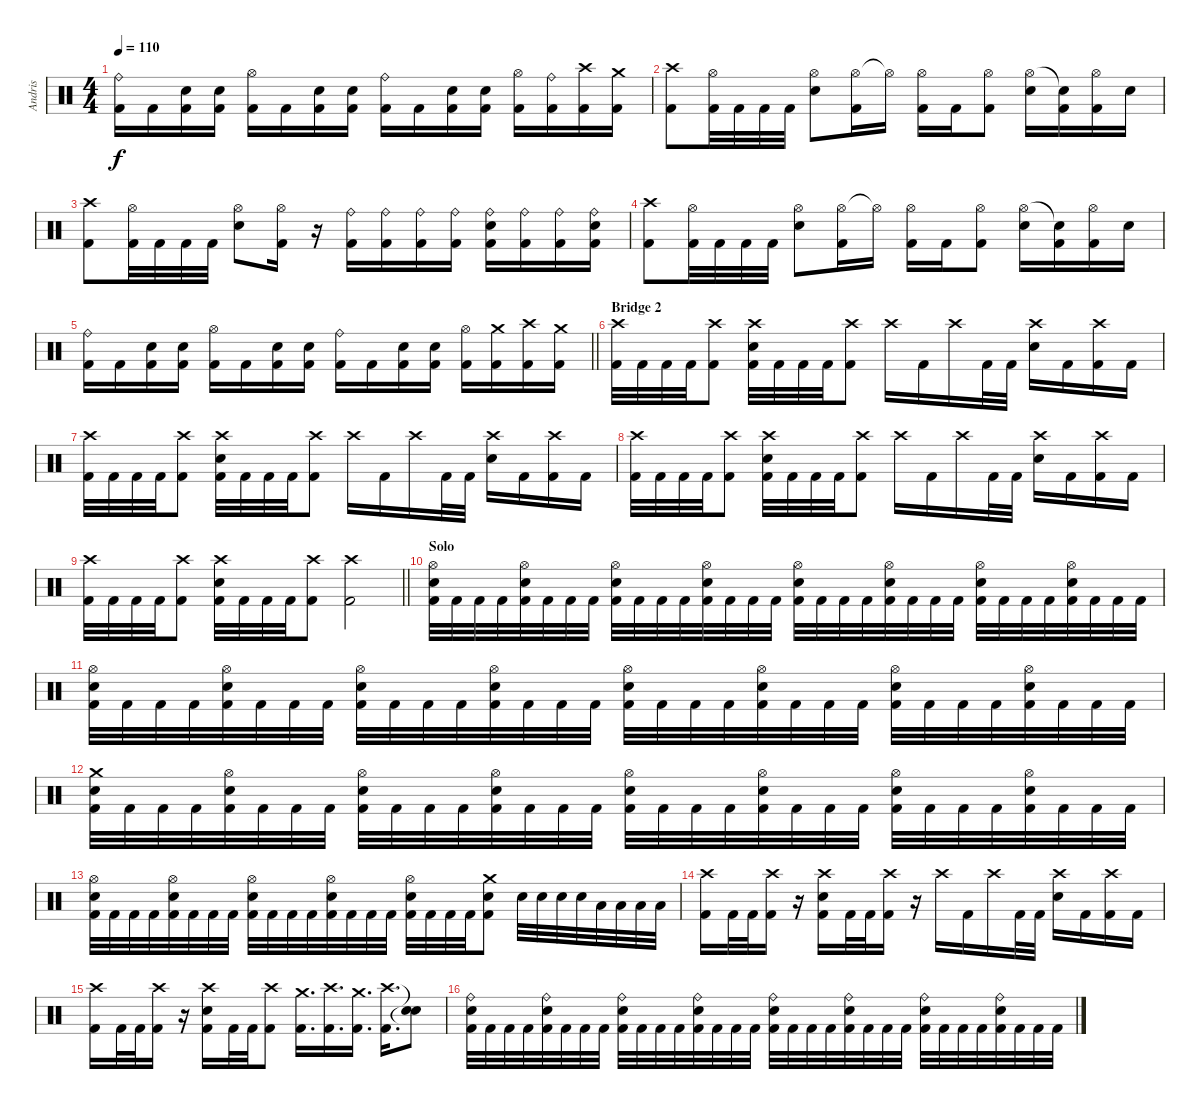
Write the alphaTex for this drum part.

\track ("Andris" "Andris") {instrument percussion}
\staff {score}
\articulation defaults
\ts (4 4)
\tempo 110
\clef neutral
\ks c
("Ride (bell)" "Kick (hit) 2").16{dy f} "Kick (hit) 2".16 ("Electric Snare (hit)" "Kick (hit) 2").16 ("Electric Snare (hit)" "Kick (hit) 2").16 ("Hi-Hat (open)" "Kick (hit) 2").16 "Kick (hit) 2".16 ("Electric Snare (hit)" "Kick (hit) 2").16 ("Electric Snare (hit)" "Kick (hit) 2").16 ("Ride (bell)" "Kick (hit) 2").16 "Kick (hit) 2".16 ("Electric Snare (hit)" "Kick (hit) 2").16 ("Electric Snare (hit)" "Kick (hit) 2").16 ("Hi-Hat (open)" "Kick (hit) 2").16 ("Ride (bell)" "Kick (hit) 2").16 ("Crash high (hit)" "Kick (hit) 2").16 ("Crash medium (hit)" "Kick (hit) 2").16 |
("Crash high (hit)" "Kick (hit) 2").8 ("Hi-Hat (open)" "Kick (hit) 2").32 "Kick (hit) 2".32 "Kick (hit) 2".32 "Kick (hit) 2".32 ("Hi-Hat (open)" "Electric Snare (hit)").8 ("Hi-Hat (open)" "Kick (hit) 2").16 "Hi-Hat (open)"{t}.16 ("Hi-Hat (open)" "Kick (hit) 2").16 "Kick (hit) 2".16 ("Hi-Hat (open)" "Kick (hit) 2").8 ("Hi-Hat (open)" "Electric Snare (hit)").16 ("Snare (hit)"{t} "Kick (hit) 2").16 ("Hi-Hat (open)" "Kick (hit) 2").16 "Electric Snare (hit)".16 |
("Crash high (hit)" "Kick (hit) 2").8 ("Hi-Hat (open)" "Kick (hit) 2").32 "Kick (hit) 2".32 "Kick (hit) 2".32 "Kick (hit) 2".32 ("Hi-Hat (open)" "Electric Snare (hit)").8 ("Hi-Hat (open)" "Kick (hit) 2").16 r.16 ("Ride (bell)" "Kick (hit) 2").16 ("Ride (bell)" "Kick (hit) 2").16 ("Ride (bell)" "Kick (hit) 2").16 ("Ride (bell)" "Kick (hit) 2").16 ("Ride (bell)" "Electric Snare (hit)" "Kick (hit) 2").16 ("Ride (bell)" "Kick (hit) 2").16 ("Ride (bell)" "Kick (hit) 2").16 ("Ride (bell)" "Electric Snare (hit)" "Kick (hit) 2").16 |
("Crash high (hit)" "Kick (hit) 2").8 ("Hi-Hat (open)" "Kick (hit) 2").32 "Kick (hit) 2".32 "Kick (hit) 2".32 "Kick (hit) 2".32 ("Hi-Hat (open)" "Electric Snare (hit)").8 ("Hi-Hat (open)" "Kick (hit) 2").16 "Hi-Hat (open)"{t}.16 ("Hi-Hat (open)" "Kick (hit) 2").16 "Kick (hit) 2".16 ("Hi-Hat (open)" "Kick (hit) 2").8 ("Hi-Hat (open)" "Electric Snare (hit)").16 ("Snare (hit)"{t} "Kick (hit) 2").16 ("Hi-Hat (open)" "Kick (hit) 2").16 "Electric Snare (hit)".16 |
\barLineRight lightlight
("Ride (bell)" "Kick (hit) 2").16 "Kick (hit) 2".16 ("Electric Snare (hit)" "Kick (hit) 2").16 ("Electric Snare (hit)" "Kick (hit) 2").16 ("Hi-Hat (open)" "Kick (hit) 2").16 "Kick (hit) 2".16 ("Electric Snare (hit)" "Kick (hit) 2").16 ("Electric Snare (hit)" "Kick (hit) 2").16 ("Ride (bell)" "Kick (hit) 2").16 "Kick (hit) 2".16 ("Electric Snare (hit)" "Kick (hit) 2").16 ("Electric Snare (hit)" "Kick (hit) 2").16 ("Hi-Hat (open)" "Kick (hit) 2").16 ("Crash medium (hit)" "Kick (hit) 2").16 ("Crash high (hit)" "Kick (hit) 2").16 ("Crash medium (hit)" "Kick (hit) 2").16 |
\section ("" "Bridge 2")
("Crash high (hit)" "Kick (hit) 2").32 "Kick (hit) 2".32 "Kick (hit) 2".32 "Kick (hit) 2".32 ("Crash high (hit)" "Kick (hit) 2").8 ("Crash high (hit)" "Electric Snare (hit)" "Kick (hit) 2").32 "Kick (hit) 2".32 "Kick (hit) 2".32 "Kick (hit) 2".32 ("Crash high (hit)" "Kick (hit) 2").8 "Crash high (hit)".16 "Kick (hit) 2".16 "Crash high (hit)".16 "Kick (hit) 2".32 "Kick (hit) 2".32 ("Crash high (hit)" "Electric Snare (hit)").16 "Kick (hit) 2".16 ("Crash high (hit)" "Kick (hit) 2").16 "Kick (hit) 2".16 |
("Crash high (hit)" "Kick (hit) 2").32 "Kick (hit) 2".32 "Kick (hit) 2".32 "Kick (hit) 2".32 ("Crash high (hit)" "Kick (hit) 2").8 ("Crash high (hit)" "Electric Snare (hit)" "Kick (hit) 2").32 "Kick (hit) 2".32 "Kick (hit) 2".32 "Kick (hit) 2".32 ("Crash high (hit)" "Kick (hit) 2").8 "Crash high (hit)".16 "Kick (hit) 2".16 "Crash high (hit)".16 "Kick (hit) 2".32 "Kick (hit) 2".32 ("Crash high (hit)" "Electric Snare (hit)").16 "Kick (hit) 2".16 ("Crash high (hit)" "Kick (hit) 2").16 "Kick (hit) 2".16 |
("Crash high (hit)" "Kick (hit) 2").32 "Kick (hit) 2".32 "Kick (hit) 2".32 "Kick (hit) 2".32 ("Crash high (hit)" "Kick (hit) 2").8 ("Crash high (hit)" "Electric Snare (hit)" "Kick (hit) 2").32 "Kick (hit) 2".32 "Kick (hit) 2".32 "Kick (hit) 2".32 ("Crash high (hit)" "Kick (hit) 2").8 "Crash high (hit)".16 "Kick (hit) 2".16 "Crash high (hit)".16 "Kick (hit) 2".32 "Kick (hit) 2".32 ("Crash high (hit)" "Electric Snare (hit)").16 "Kick (hit) 2".16 ("Crash high (hit)" "Kick (hit) 2").16 "Kick (hit) 2".16 |
\barLineRight lightlight
("Crash high (hit)" "Kick (hit) 2").32 "Kick (hit) 2".32 "Kick (hit) 2".32 "Kick (hit) 2".32 ("Crash high (hit)" "Kick (hit) 2").8 ("Crash high (hit)" "Electric Snare (hit)" "Kick (hit) 2").32 "Kick (hit) 2".32 "Kick (hit) 2".32 "Kick (hit) 2".32 ("Crash high (hit)" "Kick (hit) 2").8 ("Crash high (hit)" "Kick (hit) 2").2 |
\section ("" "Solo")
("Hi-Hat (open)" "Electric Snare (hit)" "Kick (hit) 2").32 "Kick (hit) 2".32 "Kick (hit) 2".32 "Kick (hit) 2".32 ("Hi-Hat (open)" "Electric Snare (hit)" "Kick (hit) 2").32 "Kick (hit) 2".32 "Kick (hit) 2".32 "Kick (hit) 2".32 ("Hi-Hat (open)" "Electric Snare (hit)" "Kick (hit) 2").32 "Kick (hit) 2".32 "Kick (hit) 2".32 "Kick (hit) 2".32 ("Hi-Hat (open)" "Electric Snare (hit)" "Kick (hit) 2").32 "Kick (hit) 2".32 "Kick (hit) 2".32 "Kick (hit) 2".32 ("Hi-Hat (open)" "Electric Snare (hit)" "Kick (hit) 2").32 "Kick (hit) 2".32 "Kick (hit) 2".32 "Kick (hit) 2".32 ("Hi-Hat (open)" "Electric Snare (hit)" "Kick (hit) 2").32 "Kick (hit) 2".32 "Kick (hit) 2".32 "Kick (hit) 2".32 ("Hi-Hat (open)" "Electric Snare (hit)" "Kick (hit) 2").32 "Kick (hit) 2".32 "Kick (hit) 2".32 "Kick (hit) 2".32 ("Hi-Hat (open)" "Electric Snare (hit)" "Kick (hit) 2").32 "Kick (hit) 2".32 "Kick (hit) 2".32 "Kick (hit) 2".32 |
("Hi-Hat (open)" "Electric Snare (hit)" "Kick (hit) 2").32 "Kick (hit) 2".32 "Kick (hit) 2".32 "Kick (hit) 2".32 ("Hi-Hat (open)" "Electric Snare (hit)" "Kick (hit) 2").32 "Kick (hit) 2".32 "Kick (hit) 2".32 "Kick (hit) 2".32 ("Hi-Hat (open)" "Electric Snare (hit)" "Kick (hit) 2").32 "Kick (hit) 2".32 "Kick (hit) 2".32 "Kick (hit) 2".32 ("Hi-Hat (open)" "Electric Snare (hit)" "Kick (hit) 2").32 "Kick (hit) 2".32 "Kick (hit) 2".32 "Kick (hit) 2".32 ("Hi-Hat (open)" "Electric Snare (hit)" "Kick (hit) 2").32 "Kick (hit) 2".32 "Kick (hit) 2".32 "Kick (hit) 2".32 ("Hi-Hat (open)" "Electric Snare (hit)" "Kick (hit) 2").32 "Kick (hit) 2".32 "Kick (hit) 2".32 "Kick (hit) 2".32 ("Hi-Hat (open)" "Electric Snare (hit)" "Kick (hit) 2").32 "Kick (hit) 2".32 "Kick (hit) 2".32 "Kick (hit) 2".32 ("Hi-Hat (open)" "Electric Snare (hit)" "Kick (hit) 2").32 "Kick (hit) 2".32 "Kick (hit) 2".32 "Kick (hit) 2".32 |
("Crash medium (hit)" "Electric Snare (hit)" "Kick (hit) 2").32 "Kick (hit) 2".32 "Kick (hit) 2".32 "Kick (hit) 2".32 ("Hi-Hat (open)" "Electric Snare (hit)" "Kick (hit) 2").32 "Kick (hit) 2".32 "Kick (hit) 2".32 "Kick (hit) 2".32 ("Hi-Hat (open)" "Electric Snare (hit)" "Kick (hit) 2").32 "Kick (hit) 2".32 "Kick (hit) 2".32 "Kick (hit) 2".32 ("Hi-Hat (open)" "Electric Snare (hit)" "Kick (hit) 2").32 "Kick (hit) 2".32 "Kick (hit) 2".32 "Kick (hit) 2".32 ("Hi-Hat (open)" "Electric Snare (hit)" "Kick (hit) 2").32 "Kick (hit) 2".32 "Kick (hit) 2".32 "Kick (hit) 2".32 ("Hi-Hat (open)" "Electric Snare (hit)" "Kick (hit) 2").32 "Kick (hit) 2".32 "Kick (hit) 2".32 "Kick (hit) 2".32 ("Hi-Hat (open)" "Electric Snare (hit)" "Kick (hit) 2").32 "Kick (hit) 2".32 "Kick (hit) 2".32 "Kick (hit) 2".32 ("Hi-Hat (open)" "Electric Snare (hit)" "Kick (hit) 2").32 "Kick (hit) 2".32 "Kick (hit) 2".32 "Kick (hit) 2".32 |
("Hi-Hat (open)" "Electric Snare (hit)" "Kick (hit) 2").32 "Kick (hit) 2".32 "Kick (hit) 2".32 "Kick (hit) 2".32 ("Hi-Hat (open)" "Electric Snare (hit)" "Kick (hit) 2").32 "Kick (hit) 2".32 "Kick (hit) 2".32 "Kick (hit) 2".32 ("Hi-Hat (open)" "Electric Snare (hit)" "Kick (hit) 2").32 "Kick (hit) 2".32 "Kick (hit) 2".32 "Kick (hit) 2".32 ("Hi-Hat (open)" "Electric Snare (hit)" "Kick (hit) 2").32 "Kick (hit) 2".32 "Kick (hit) 2".32 "Kick (hit) 2".32 ("Hi-Hat (open)" "Electric Snare (hit)" "Kick (hit) 2").32 "Kick (hit) 2".32 "Kick (hit) 2".32 "Kick (hit) 2".32 ("Crash medium (hit)" "Electric Snare (hit)" "Kick (hit) 2").8 "Electric Snare (hit)".32 "Electric Snare (hit)".32 "Electric Snare (hit)".32 "Electric Snare (hit)".32 "Low Tom (hit)".32 "Low Tom (hit)".32 "Low Tom (hit)".32 "Low Tom (hit)".32 |
("Crash high (hit)" "Kick (hit) 2").16 "Kick (hit) 2".32 "Kick (hit) 2".32 ("Crash high (hit)" "Kick (hit) 2").16 r.16 ("Crash high (hit)" "Electric Snare (hit)" "Kick (hit) 2").16 "Kick (hit) 2".32 "Kick (hit) 2".32 ("Crash high (hit)" "Kick (hit) 2").16 r.16 "Crash high (hit)".16 "Kick (hit) 2".16 "Crash high (hit)".16 "Kick (hit) 2".32 "Kick (hit) 2".32 ("Crash high (hit)" "Electric Snare (hit)").16 "Kick (hit) 2".16 ("Crash high (hit)" "Kick (hit) 2").16 "Kick (hit) 2".16 |
("Crash high (hit)" "Kick (hit) 2").16 "Kick (hit) 2".32 "Kick (hit) 2".32 ("Crash high (hit)" "Kick (hit) 2").16 r.16 ("Crash high (hit)" "Electric Snare (hit)" "Kick (hit) 2").16 "Kick (hit) 2".32 "Kick (hit) 2".32 ("Crash high (hit)" "Kick (hit) 2").8 ("Crash medium (hit)" "Kick (hit) 2").16{d} ("Crash high (hit)" "Kick (hit) 2").16{d} ("Crash medium (hit)" "Kick (hit) 2").16{d} ("Crash high (hit)" "Kick (hit) 2").16{d} ("Snare (hit)"{t} "Snare (hit)"{t}).8 |
("Ride (bell)" "Electric Snare (hit)" "Kick (hit) 2").32 "Kick (hit) 2".32 "Kick (hit) 2".32 "Kick (hit) 2".32 ("Ride (bell)" "Electric Snare (hit)" "Kick (hit) 2").32 "Kick (hit) 2".32 "Kick (hit) 2".32 "Kick (hit) 2".32 ("Ride (bell)" "Electric Snare (hit)" "Kick (hit) 2").32 "Kick (hit) 2".32 "Kick (hit) 2".32 "Kick (hit) 2".32 ("Ride (bell)" "Electric Snare (hit)" "Kick (hit) 2").32 "Kick (hit) 2".32 "Kick (hit) 2".32 "Kick (hit) 2".32 ("Ride (bell)" "Electric Snare (hit)" "Kick (hit) 2").32 "Kick (hit) 2".32 "Kick (hit) 2".32 "Kick (hit) 2".32 ("Ride (bell)" "Electric Snare (hit)" "Kick (hit) 2").32 "Kick (hit) 2".32 "Kick (hit) 2".32 "Kick (hit) 2".32 ("Ride (bell)" "Electric Snare (hit)" "Kick (hit) 2").32 "Kick (hit) 2".32 "Kick (hit) 2".32 "Kick (hit) 2".32 ("Ride (bell)" "Electric Snare (hit)" "Kick (hit) 2").32 "Kick (hit) 2".32 "Kick (hit) 2".32 "Kick (hit) 2".32
